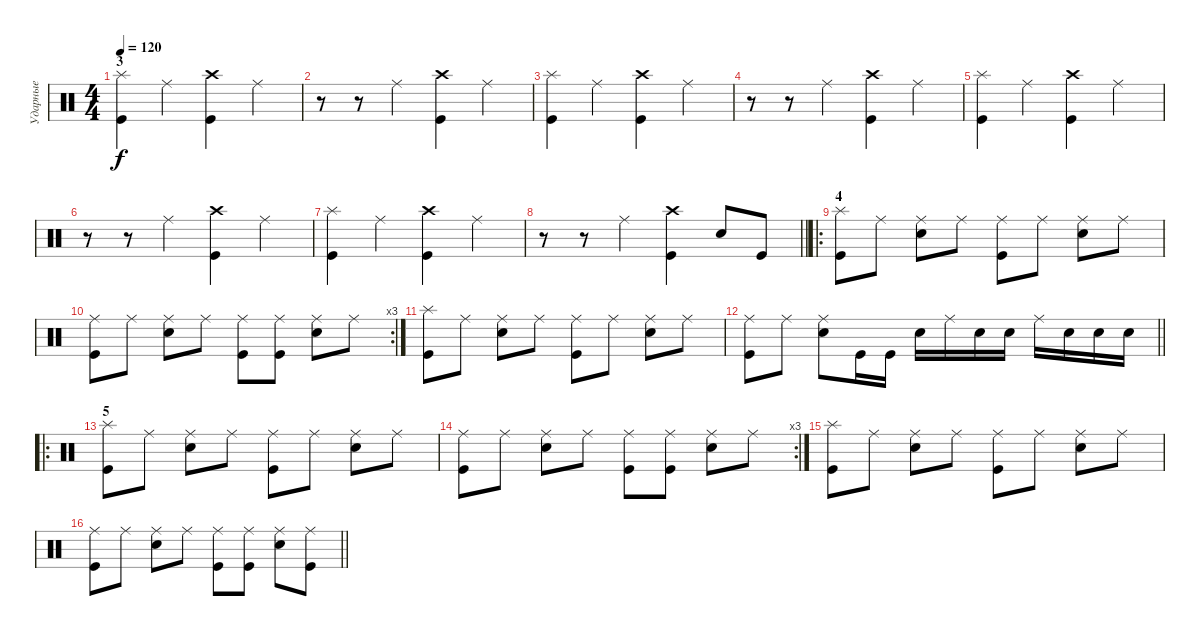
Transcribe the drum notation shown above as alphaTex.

\track ("Ударные" "Ударные") {instrument percussion}
\staff {score}
\articulation defaults
\ts (4 4)
\section ("" "3")
\tempo 120
\clef neutral
\ks c
("Splash (hit)" "Kick (hit)").4{dy f} "Ride (middle)".4 ("Crash high (hit)" "Kick (hit)").4 "Ride (middle)".4 |
r.8 r.8 "Ride (middle)".4 ("Crash high (hit)" "Kick (hit)").4 "Ride (middle)".4 |
("Splash (hit)" "Kick (hit)").4 "Ride (middle)".4 ("Crash high (hit)" "Kick (hit)").4 "Ride (middle)".4 |
r.8 r.8 "Ride (middle)".4 ("Crash high (hit)" "Kick (hit)").4 "Ride (middle)".4 |
("Splash (hit)" "Kick (hit)").4 "Ride (middle)".4 ("Crash high (hit)" "Kick (hit)").4 "Ride (middle)".4 |
r.8 r.8 "Ride (middle)".4 ("Crash high (hit)" "Kick (hit)").4 "Ride (middle)".4 |
("Splash (hit)" "Kick (hit)").4 "Ride (middle)".4 ("Crash high (hit)" "Kick (hit)").4 "Ride (middle)".4 |
\barLineRight lightlight
r.8 r.8 "Ride (middle)".4 ("Crash high (hit)" "Kick (hit)").4 "Electric Snare (hit)".8 "Kick (hit)".8 |
\ro
\section ("" "4")
("Splash (hit)" "Kick (hit)").8 "Ride (middle)".8 ("Ride (middle)" "Electric Snare (hit)").8 "Ride (middle)".8 ("Ride (middle)" "Kick (hit)").8 "Ride (middle)".8 ("Ride (middle)" "Electric Snare (hit)").8 "Ride (middle)".8 |
\rc 3
("Ride (middle)" "Kick (hit)").8 "Ride (middle)".8 ("Ride (middle)" "Electric Snare (hit)").8 "Ride (middle)".8 ("Ride (middle)" "Kick (hit)").8 ("Ride (middle)" "Kick (hit)").8 ("Ride (middle)" "Electric Snare (hit)").8 "Ride (middle)".8 |
("Splash (hit)" "Kick (hit)").8 "Ride (middle)".8 ("Ride (middle)" "Electric Snare (hit)").8 "Ride (middle)".8 ("Ride (middle)" "Kick (hit)").8 "Ride (middle)".8 ("Ride (middle)" "Electric Snare (hit)").8 "Ride (middle)".8 |
\barLineRight lightlight
("Ride (middle)" "Kick (hit)").8 "Ride (middle)".8 ("Ride (middle)" "Electric Snare (hit)").8 "Kick (hit)".16 "Kick (hit)".16 "Electric Snare (hit)".16 "Ride (middle)".16 "Electric Snare (hit)".16 "Electric Snare (hit)".16 "Ride (middle)".16 "Electric Snare (hit)".16 "Electric Snare (hit)".16 "Electric Snare (hit)".16 |
\ro
\section ("" "5")
("Splash (hit)" "Kick (hit)").8 "Ride (middle)".8 ("Ride (middle)" "Electric Snare (hit)").8 "Ride (middle)".8 ("Ride (middle)" "Kick (hit)").8 "Ride (middle)".8 ("Ride (middle)" "Electric Snare (hit)").8 "Ride (middle)".8 |
\rc 3
("Ride (middle)" "Kick (hit)").8 "Ride (middle)".8 ("Ride (middle)" "Electric Snare (hit)").8 "Ride (middle)".8 ("Ride (middle)" "Kick (hit)").8 ("Ride (middle)" "Kick (hit)").8 ("Ride (middle)" "Electric Snare (hit)").8 "Ride (middle)".8 |
("Splash (hit)" "Kick (hit)").8 "Ride (middle)".8 ("Ride (middle)" "Electric Snare (hit)").8 "Ride (middle)".8 ("Ride (middle)" "Kick (hit)").8 "Ride (middle)".8 ("Ride (middle)" "Electric Snare (hit)").8 "Ride (middle)".8 |
\barLineRight lightlight
("Ride (middle)" "Kick (hit)").8 "Ride (middle)".8 ("Ride (middle)" "Electric Snare (hit)").8 "Ride (middle)".8 ("Ride (middle)" "Kick (hit)").8 ("Ride (middle)" "Kick (hit)").8 ("Ride (middle)" "Electric Snare (hit)").8 ("Ride (middle)" "Kick (hit)").8
